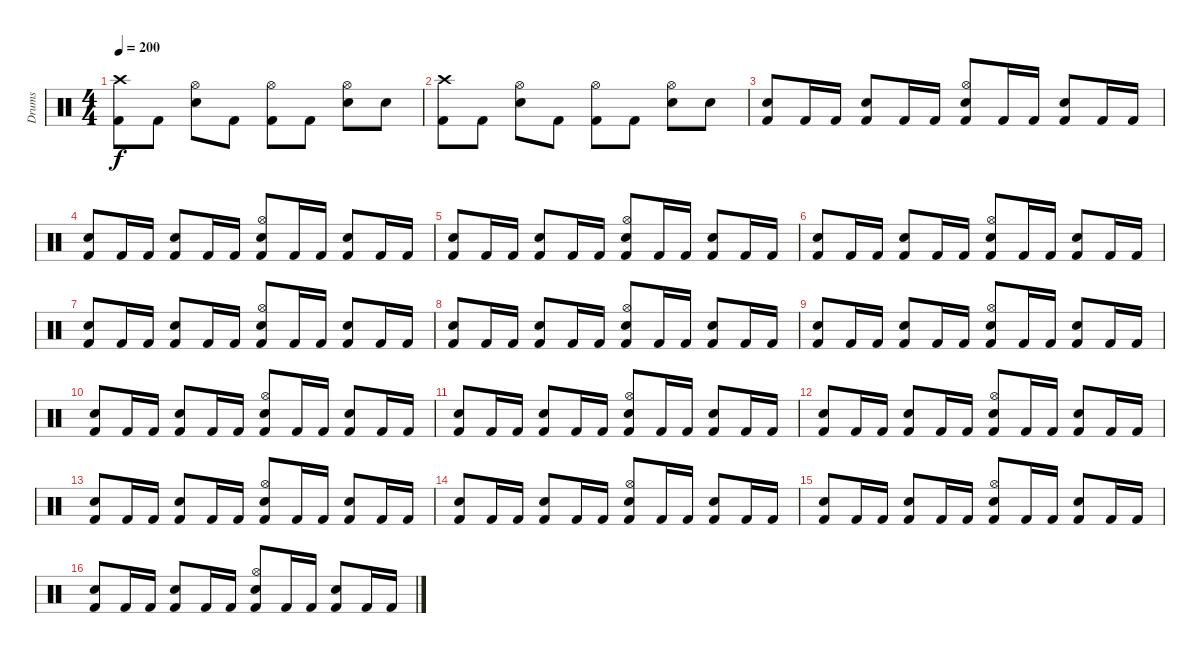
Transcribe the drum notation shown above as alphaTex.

\track ("Drums" "Drums") {instrument percussion}
\staff {score}
\articulation defaults
\ts (4 4)
\tempo 200
\clef neutral
\ks c
("Crash high (hit)" "Kick (hit) 2").8{dy f} "Kick (hit) 2".8 ("Hi-Hat (open)" "Electric Snare (hit)").8 "Kick (hit) 2".8 ("Hi-Hat (open)" "Kick (hit) 2").8 "Kick (hit) 2".8 ("Hi-Hat (open)" "Electric Snare (hit)").8 "Electric Snare (hit)".8 |
("Crash high (hit)" "Kick (hit) 2").8 "Kick (hit) 2".8 ("Hi-Hat (open)" "Electric Snare (hit)").8 "Kick (hit) 2".8 ("Hi-Hat (open)" "Kick (hit) 2").8 "Kick (hit) 2".8 ("Hi-Hat (open)" "Electric Snare (hit)").8 "Electric Snare (hit)".8 |
("Electric Snare (hit)" "Kick (hit) 2").8 "Kick (hit) 2".16 "Kick (hit) 2".16 ("Electric Snare (hit)" "Kick (hit) 2").8 "Kick (hit) 2".16 "Kick (hit) 2".16 ("Hi-Hat (open)" "Electric Snare (hit)" "Kick (hit) 2").8 "Kick (hit) 2".16 "Kick (hit) 2".16 ("Electric Snare (hit)" "Kick (hit) 2").8 "Kick (hit) 2".16 "Kick (hit) 2".16 |
("Electric Snare (hit)" "Kick (hit) 2").8 "Kick (hit) 2".16 "Kick (hit) 2".16 ("Electric Snare (hit)" "Kick (hit) 2").8 "Kick (hit) 2".16 "Kick (hit) 2".16 ("Hi-Hat (open)" "Electric Snare (hit)" "Kick (hit) 2").8 "Kick (hit) 2".16 "Kick (hit) 2".16 ("Electric Snare (hit)" "Kick (hit) 2").8 "Kick (hit) 2".16 "Kick (hit) 2".16 |
("Electric Snare (hit)" "Kick (hit) 2").8 "Kick (hit) 2".16 "Kick (hit) 2".16 ("Electric Snare (hit)" "Kick (hit) 2").8 "Kick (hit) 2".16 "Kick (hit) 2".16 ("Hi-Hat (open)" "Electric Snare (hit)" "Kick (hit) 2").8 "Kick (hit) 2".16 "Kick (hit) 2".16 ("Electric Snare (hit)" "Kick (hit) 2").8 "Kick (hit) 2".16 "Kick (hit) 2".16 |
("Electric Snare (hit)" "Kick (hit) 2").8 "Kick (hit) 2".16 "Kick (hit) 2".16 ("Electric Snare (hit)" "Kick (hit) 2").8 "Kick (hit) 2".16 "Kick (hit) 2".16 ("Hi-Hat (open)" "Electric Snare (hit)" "Kick (hit) 2").8 "Kick (hit) 2".16 "Kick (hit) 2".16 ("Electric Snare (hit)" "Kick (hit) 2").8 "Kick (hit) 2".16 "Kick (hit) 2".16 |
("Electric Snare (hit)" "Kick (hit) 2").8 "Kick (hit) 2".16 "Kick (hit) 2".16 ("Electric Snare (hit)" "Kick (hit) 2").8 "Kick (hit) 2".16 "Kick (hit) 2".16 ("Hi-Hat (open)" "Electric Snare (hit)" "Kick (hit) 2").8 "Kick (hit) 2".16 "Kick (hit) 2".16 ("Electric Snare (hit)" "Kick (hit) 2").8 "Kick (hit) 2".16 "Kick (hit) 2".16 |
("Electric Snare (hit)" "Kick (hit) 2").8 "Kick (hit) 2".16 "Kick (hit) 2".16 ("Electric Snare (hit)" "Kick (hit) 2").8 "Kick (hit) 2".16 "Kick (hit) 2".16 ("Hi-Hat (open)" "Electric Snare (hit)" "Kick (hit) 2").8 "Kick (hit) 2".16 "Kick (hit) 2".16 ("Electric Snare (hit)" "Kick (hit) 2").8 "Kick (hit) 2".16 "Kick (hit) 2".16 |
("Electric Snare (hit)" "Kick (hit) 2").8 "Kick (hit) 2".16 "Kick (hit) 2".16 ("Electric Snare (hit)" "Kick (hit) 2").8 "Kick (hit) 2".16 "Kick (hit) 2".16 ("Hi-Hat (open)" "Electric Snare (hit)" "Kick (hit) 2").8 "Kick (hit) 2".16 "Kick (hit) 2".16 ("Electric Snare (hit)" "Kick (hit) 2").8 "Kick (hit) 2".16 "Kick (hit) 2".16 |
("Electric Snare (hit)" "Kick (hit) 2").8 "Kick (hit) 2".16 "Kick (hit) 2".16 ("Electric Snare (hit)" "Kick (hit) 2").8 "Kick (hit) 2".16 "Kick (hit) 2".16 ("Hi-Hat (open)" "Electric Snare (hit)" "Kick (hit) 2").8 "Kick (hit) 2".16 "Kick (hit) 2".16 ("Electric Snare (hit)" "Kick (hit) 2").8 "Kick (hit) 2".16 "Kick (hit) 2".16 |
("Electric Snare (hit)" "Kick (hit) 2").8 "Kick (hit) 2".16 "Kick (hit) 2".16 ("Electric Snare (hit)" "Kick (hit) 2").8 "Kick (hit) 2".16 "Kick (hit) 2".16 ("Hi-Hat (open)" "Electric Snare (hit)" "Kick (hit) 2").8 "Kick (hit) 2".16 "Kick (hit) 2".16 ("Electric Snare (hit)" "Kick (hit) 2").8 "Kick (hit) 2".16 "Kick (hit) 2".16 |
("Electric Snare (hit)" "Kick (hit) 2").8 "Kick (hit) 2".16 "Kick (hit) 2".16 ("Electric Snare (hit)" "Kick (hit) 2").8 "Kick (hit) 2".16 "Kick (hit) 2".16 ("Hi-Hat (open)" "Electric Snare (hit)" "Kick (hit) 2").8 "Kick (hit) 2".16 "Kick (hit) 2".16 ("Electric Snare (hit)" "Kick (hit) 2").8 "Kick (hit) 2".16 "Kick (hit) 2".16 |
("Electric Snare (hit)" "Kick (hit) 2").8 "Kick (hit) 2".16 "Kick (hit) 2".16 ("Electric Snare (hit)" "Kick (hit) 2").8 "Kick (hit) 2".16 "Kick (hit) 2".16 ("Hi-Hat (open)" "Electric Snare (hit)" "Kick (hit) 2").8 "Kick (hit) 2".16 "Kick (hit) 2".16 ("Electric Snare (hit)" "Kick (hit) 2").8 "Kick (hit) 2".16 "Kick (hit) 2".16 |
("Electric Snare (hit)" "Kick (hit) 2").8 "Kick (hit) 2".16 "Kick (hit) 2".16 ("Electric Snare (hit)" "Kick (hit) 2").8 "Kick (hit) 2".16 "Kick (hit) 2".16 ("Hi-Hat (open)" "Electric Snare (hit)" "Kick (hit) 2").8 "Kick (hit) 2".16 "Kick (hit) 2".16 ("Electric Snare (hit)" "Kick (hit) 2").8 "Kick (hit) 2".16 "Kick (hit) 2".16 |
("Electric Snare (hit)" "Kick (hit) 2").8 "Kick (hit) 2".16 "Kick (hit) 2".16 ("Electric Snare (hit)" "Kick (hit) 2").8 "Kick (hit) 2".16 "Kick (hit) 2".16 ("Hi-Hat (open)" "Electric Snare (hit)" "Kick (hit) 2").8 "Kick (hit) 2".16 "Kick (hit) 2".16 ("Electric Snare (hit)" "Kick (hit) 2").8 "Kick (hit) 2".16 "Kick (hit) 2".16 |
("Electric Snare (hit)" "Kick (hit) 2").8 "Kick (hit) 2".16 "Kick (hit) 2".16 ("Electric Snare (hit)" "Kick (hit) 2").8 "Kick (hit) 2".16 "Kick (hit) 2".16 ("Hi-Hat (open)" "Electric Snare (hit)" "Kick (hit) 2").8 "Kick (hit) 2".16 "Kick (hit) 2".16 ("Electric Snare (hit)" "Kick (hit) 2").8 "Kick (hit) 2".16 "Kick (hit) 2".16
